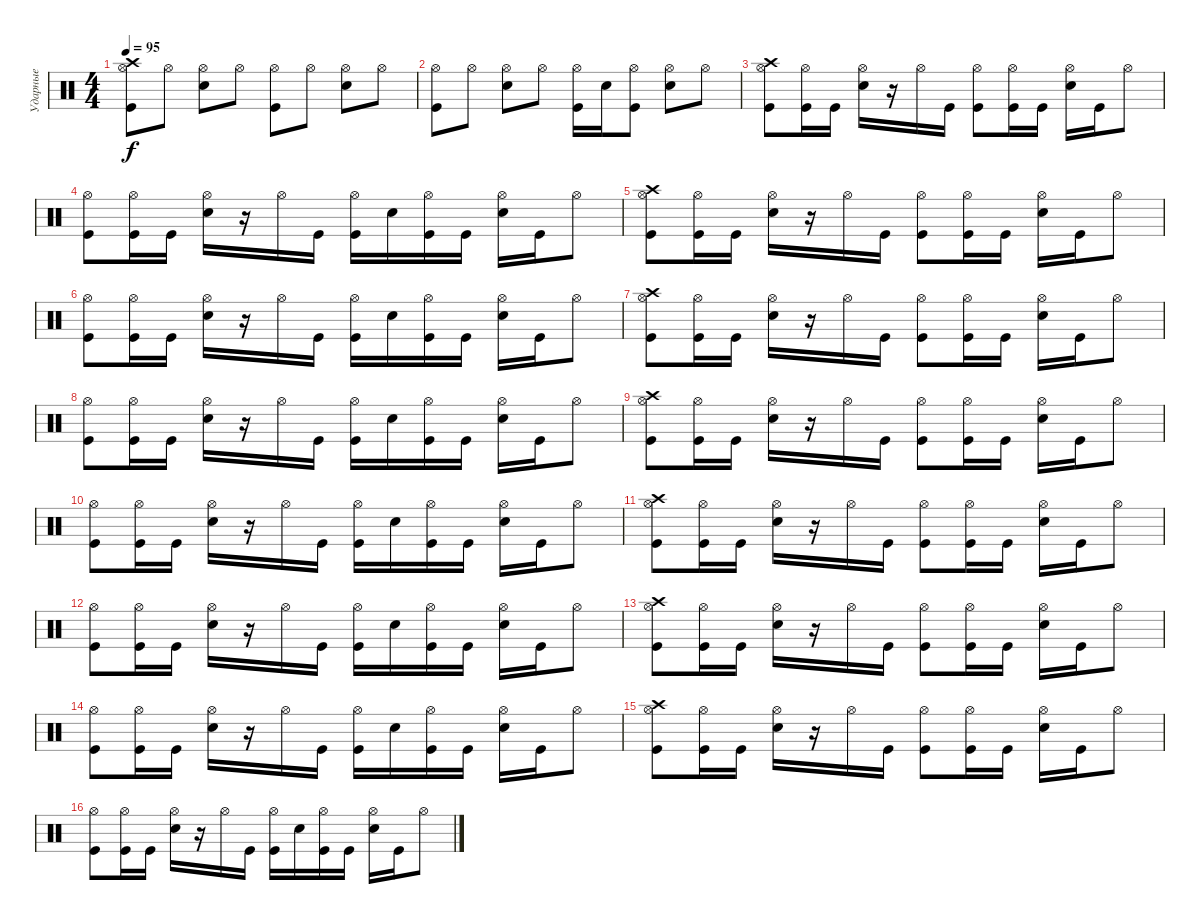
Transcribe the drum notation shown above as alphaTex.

\track ("Ударные" "Ударные") {instrument percussion}
\staff {score}
\articulation defaults
\ts (4 4)
\tempo 95
\clef neutral
\ks c
("Kick (hit)" "Hi-Hat (open)" "Crash high (hit)").8{dy f} "Hi-Hat (open)".8 ("Snare (hit) 2" "Hi-Hat (open)").8 "Hi-Hat (open)".8 ("Kick (hit)" "Hi-Hat (open)").8 "Hi-Hat (open)".8 ("Snare (hit) 2" "Hi-Hat (open)").8 "Hi-Hat (open)".8 |
("Kick (hit)" "Hi-Hat (open)").8 "Hi-Hat (open)".8 ("Snare (hit) 2" "Hi-Hat (open)").8 "Hi-Hat (open)".8 ("Kick (hit)" "Hi-Hat (open)").16 "Snare (hit) 2".16 ("Kick (hit)" "Hi-Hat (open)").8 ("Snare (hit) 2" "Hi-Hat (open)").8 "Hi-Hat (open)".8 |
("Kick (hit)" "Hi-Hat (open)" "Crash high (hit)").8 ("Kick (hit)" "Hi-Hat (open)").16 "Kick (hit)".16 ("Snare (hit) 2" "Hi-Hat (open)").16 r.16 "Hi-Hat (open)".16 "Kick (hit)".16 ("Kick (hit)" "Hi-Hat (open)").8 ("Kick (hit)" "Hi-Hat (open)").16 "Kick (hit)".16 ("Snare (hit) 2" "Hi-Hat (open)").16 "Kick (hit)".16 "Hi-Hat (open)".8 |
("Kick (hit)" "Hi-Hat (open)").8 ("Kick (hit)" "Hi-Hat (open)").16 "Kick (hit)".16 ("Snare (hit) 2" "Hi-Hat (open)").16 r.16 "Hi-Hat (open)".16 "Kick (hit)".16 ("Kick (hit)" "Hi-Hat (open)").16 "Snare (hit) 2".16 ("Kick (hit)" "Hi-Hat (open)").16 "Kick (hit)".16 ("Snare (hit) 2" "Hi-Hat (open)").16 "Kick (hit)".16 "Hi-Hat (open)".8 |
("Kick (hit)" "Hi-Hat (open)" "Crash high (hit)").8 ("Kick (hit)" "Hi-Hat (open)").16 "Kick (hit)".16 ("Snare (hit) 2" "Hi-Hat (open)").16 r.16 "Hi-Hat (open)".16 "Kick (hit)".16 ("Kick (hit)" "Hi-Hat (open)").8 ("Kick (hit)" "Hi-Hat (open)").16 "Kick (hit)".16 ("Snare (hit) 2" "Hi-Hat (open)").16 "Kick (hit)".16 "Hi-Hat (open)".8 |
("Kick (hit)" "Hi-Hat (open)").8 ("Kick (hit)" "Hi-Hat (open)").16 "Kick (hit)".16 ("Snare (hit) 2" "Hi-Hat (open)").16 r.16 "Hi-Hat (open)".16 "Kick (hit)".16 ("Kick (hit)" "Hi-Hat (open)").16 "Snare (hit) 2".16 ("Kick (hit)" "Hi-Hat (open)").16 "Kick (hit)".16 ("Snare (hit) 2" "Hi-Hat (open)").16 "Kick (hit)".16 "Hi-Hat (open)".8 |
("Kick (hit)" "Hi-Hat (open)" "Crash high (hit)").8 ("Kick (hit)" "Hi-Hat (open)").16 "Kick (hit)".16 ("Snare (hit) 2" "Hi-Hat (open)").16 r.16 "Hi-Hat (open)".16 "Kick (hit)".16 ("Kick (hit)" "Hi-Hat (open)").8 ("Kick (hit)" "Hi-Hat (open)").16 "Kick (hit)".16 ("Snare (hit) 2" "Hi-Hat (open)").16 "Kick (hit)".16 "Hi-Hat (open)".8 |
("Kick (hit)" "Hi-Hat (open)").8 ("Kick (hit)" "Hi-Hat (open)").16 "Kick (hit)".16 ("Snare (hit) 2" "Hi-Hat (open)").16 r.16 "Hi-Hat (open)".16 "Kick (hit)".16 ("Kick (hit)" "Hi-Hat (open)").16 "Snare (hit) 2".16 ("Kick (hit)" "Hi-Hat (open)").16 "Kick (hit)".16 ("Snare (hit) 2" "Hi-Hat (open)").16 "Kick (hit)".16 "Hi-Hat (open)".8 |
("Kick (hit)" "Hi-Hat (open)" "Crash high (hit)").8 ("Kick (hit)" "Hi-Hat (open)").16 "Kick (hit)".16 ("Snare (hit) 2" "Hi-Hat (open)").16 r.16 "Hi-Hat (open)".16 "Kick (hit)".16 ("Kick (hit)" "Hi-Hat (open)").8 ("Kick (hit)" "Hi-Hat (open)").16 "Kick (hit)".16 ("Snare (hit) 2" "Hi-Hat (open)").16 "Kick (hit)".16 "Hi-Hat (open)".8 |
("Kick (hit)" "Hi-Hat (open)").8 ("Kick (hit)" "Hi-Hat (open)").16 "Kick (hit)".16 ("Snare (hit) 2" "Hi-Hat (open)").16 r.16 "Hi-Hat (open)".16 "Kick (hit)".16 ("Kick (hit)" "Hi-Hat (open)").16 "Snare (hit) 2".16 ("Kick (hit)" "Hi-Hat (open)").16 "Kick (hit)".16 ("Snare (hit) 2" "Hi-Hat (open)").16 "Kick (hit)".16 "Hi-Hat (open)".8 |
("Kick (hit)" "Hi-Hat (open)" "Crash high (hit)").8 ("Kick (hit)" "Hi-Hat (open)").16 "Kick (hit)".16 ("Snare (hit) 2" "Hi-Hat (open)").16 r.16 "Hi-Hat (open)".16 "Kick (hit)".16 ("Kick (hit)" "Hi-Hat (open)").8 ("Kick (hit)" "Hi-Hat (open)").16 "Kick (hit)".16 ("Snare (hit) 2" "Hi-Hat (open)").16 "Kick (hit)".16 "Hi-Hat (open)".8 |
("Kick (hit)" "Hi-Hat (open)").8 ("Kick (hit)" "Hi-Hat (open)").16 "Kick (hit)".16 ("Snare (hit) 2" "Hi-Hat (open)").16 r.16 "Hi-Hat (open)".16 "Kick (hit)".16 ("Kick (hit)" "Hi-Hat (open)").16 "Snare (hit) 2".16 ("Kick (hit)" "Hi-Hat (open)").16 "Kick (hit)".16 ("Snare (hit) 2" "Hi-Hat (open)").16 "Kick (hit)".16 "Hi-Hat (open)".8 |
("Kick (hit)" "Hi-Hat (open)" "Crash high (hit)").8 ("Kick (hit)" "Hi-Hat (open)").16 "Kick (hit)".16 ("Snare (hit) 2" "Hi-Hat (open)").16 r.16 "Hi-Hat (open)".16 "Kick (hit)".16 ("Kick (hit)" "Hi-Hat (open)").8 ("Kick (hit)" "Hi-Hat (open)").16 "Kick (hit)".16 ("Snare (hit) 2" "Hi-Hat (open)").16 "Kick (hit)".16 "Hi-Hat (open)".8 |
("Kick (hit)" "Hi-Hat (open)").8 ("Kick (hit)" "Hi-Hat (open)").16 "Kick (hit)".16 ("Snare (hit) 2" "Hi-Hat (open)").16 r.16 "Hi-Hat (open)".16 "Kick (hit)".16 ("Kick (hit)" "Hi-Hat (open)").16 "Snare (hit) 2".16 ("Kick (hit)" "Hi-Hat (open)").16 "Kick (hit)".16 ("Snare (hit) 2" "Hi-Hat (open)").16 "Kick (hit)".16 "Hi-Hat (open)".8 |
("Kick (hit)" "Hi-Hat (open)" "Crash high (hit)").8 ("Kick (hit)" "Hi-Hat (open)").16 "Kick (hit)".16 ("Snare (hit) 2" "Hi-Hat (open)").16 r.16 "Hi-Hat (open)".16 "Kick (hit)".16 ("Kick (hit)" "Hi-Hat (open)").8 ("Kick (hit)" "Hi-Hat (open)").16 "Kick (hit)".16 ("Snare (hit) 2" "Hi-Hat (open)").16 "Kick (hit)".16 "Hi-Hat (open)".8 |
("Kick (hit)" "Hi-Hat (open)").8 ("Kick (hit)" "Hi-Hat (open)").16 "Kick (hit)".16 ("Snare (hit) 2" "Hi-Hat (open)").16 r.16 "Hi-Hat (open)".16 "Kick (hit)".16 ("Kick (hit)" "Hi-Hat (open)").16 "Snare (hit) 2".16 ("Kick (hit)" "Hi-Hat (open)").16 "Kick (hit)".16 ("Snare (hit) 2" "Hi-Hat (open)").16 "Kick (hit)".16 "Hi-Hat (open)".8
